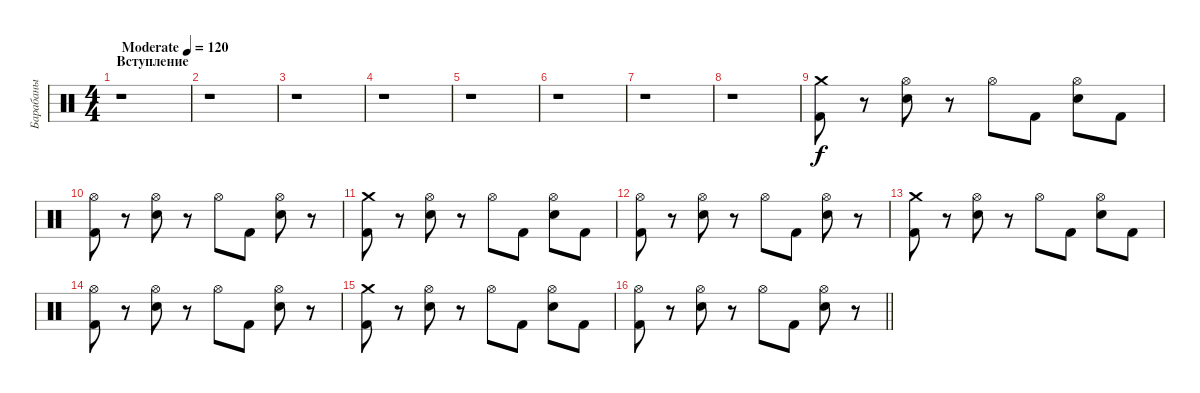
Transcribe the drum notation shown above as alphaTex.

\track ("Барабаны" "Барабаны") {instrument percussion}
\staff {score}
\articulation defaults
\ts (4 4)
\section ("" "Вступление")
\tempo (120 "Moderate")
\clef neutral
\ks c
r.1{dy f} |
r.1 |
r.1 |
r.1 |
r.1 |
r.1 |
r.1 |
r.1 |
("Kick (hit) 2" "Crash medium (hit)").8 r.8 ("Hi-Hat (open)" "Snare (hit) 2").8 r.8 "Hi-Hat (open)".8 "Kick (hit) 2".8 ("Hi-Hat (open)" "Snare (hit) 2").8 "Kick (hit) 2".8 |
("Hi-Hat (open)" "Kick (hit) 2").8 r.8 ("Hi-Hat (open)" "Snare (hit) 2").8 r.8 "Hi-Hat (open)".8 "Kick (hit) 2".8 ("Hi-Hat (open)" "Snare (hit) 2").8 r.8 |
("Kick (hit) 2" "Crash medium (hit)").8 r.8 ("Hi-Hat (open)" "Snare (hit) 2").8 r.8 "Hi-Hat (open)".8 "Kick (hit) 2".8 ("Hi-Hat (open)" "Snare (hit) 2").8 "Kick (hit) 2".8 |
("Hi-Hat (open)" "Kick (hit) 2").8 r.8 ("Hi-Hat (open)" "Snare (hit) 2").8 r.8 "Hi-Hat (open)".8 "Kick (hit) 2".8 ("Hi-Hat (open)" "Snare (hit) 2").8 r.8 |
("Kick (hit) 2" "Crash medium (hit)").8 r.8 ("Hi-Hat (open)" "Snare (hit) 2").8 r.8 "Hi-Hat (open)".8 "Kick (hit) 2".8 ("Hi-Hat (open)" "Snare (hit) 2").8 "Kick (hit) 2".8 |
("Hi-Hat (open)" "Kick (hit) 2").8 r.8 ("Hi-Hat (open)" "Snare (hit) 2").8 r.8 "Hi-Hat (open)".8 "Kick (hit) 2".8 ("Hi-Hat (open)" "Snare (hit) 2").8 r.8 |
("Kick (hit) 2" "Crash medium (hit)").8 r.8 ("Hi-Hat (open)" "Snare (hit) 2").8 r.8 "Hi-Hat (open)".8 "Kick (hit) 2".8 ("Hi-Hat (open)" "Snare (hit) 2").8 "Kick (hit) 2".8 |
\barLineRight lightlight
("Hi-Hat (open)" "Kick (hit) 2").8 r.8 ("Hi-Hat (open)" "Snare (hit) 2").8 r.8 "Hi-Hat (open)".8 "Kick (hit) 2".8 ("Hi-Hat (open)" "Snare (hit) 2").8 r.8
